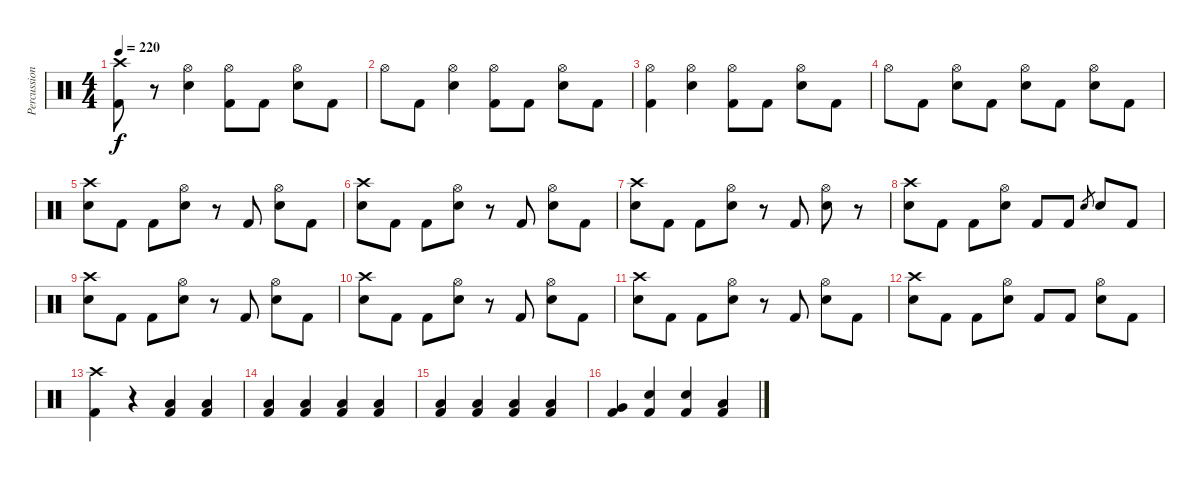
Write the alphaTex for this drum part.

\track ("Percussion" "Percussion") {instrument percussion}
\staff {score}
\articulation defaults
\ts (4 4)
\tempo 220
\clef neutral
\ks c
("Crash high (hit)" "Kick (hit) 2").8{dy f} r.8 ("Hi-Hat (open)" "Electric Snare (hit)").4 ("Hi-Hat (open)" "Kick (hit) 2").8 "Kick (hit) 2".8 ("Hi-Hat (open)" "Electric Snare (hit)").8 "Kick (hit) 2".8 |
"Hi-Hat (open)".8 "Kick (hit) 2".8 ("Hi-Hat (open)" "Electric Snare (hit)").4 ("Hi-Hat (open)" "Kick (hit) 2").8 "Kick (hit) 2".8 ("Hi-Hat (open)" "Electric Snare (hit)").8 "Kick (hit) 2".8 |
("Hi-Hat (open)" "Kick (hit) 2").4 ("Hi-Hat (open)" "Electric Snare (hit)").4 ("Hi-Hat (open)" "Kick (hit) 2").8 "Kick (hit) 2".8 ("Hi-Hat (open)" "Electric Snare (hit)").8 "Kick (hit) 2".8 |
"Hi-Hat (open)".8 "Kick (hit) 2".8 ("Hi-Hat (open)" "Electric Snare (hit)").8 "Kick (hit) 2".8 ("Hi-Hat (open)" "Electric Snare (hit)").8 "Kick (hit) 2".8 ("Hi-Hat (open)" "Electric Snare (hit)").8 "Kick (hit) 2".8 |
("Crash high (hit)" "Electric Snare (hit)").8 "Kick (hit) 2".8 "Kick (hit) 2".8 ("Hi-Hat (open)" "Electric Snare (hit)").8 r.8 "Kick (hit) 2".8 ("Hi-Hat (open)" "Electric Snare (hit)").8 "Kick (hit) 2".8 |
("Crash high (hit)" "Electric Snare (hit)").8 "Kick (hit) 2".8 "Kick (hit) 2".8 ("Hi-Hat (open)" "Electric Snare (hit)").8 r.8 "Kick (hit) 2".8 ("Hi-Hat (open)" "Electric Snare (hit)").8 "Kick (hit) 2".8 |
("Crash high (hit)" "Electric Snare (hit)").8 "Kick (hit) 2".8 "Kick (hit) 2".8 ("Hi-Hat (open)" "Electric Snare (hit)").8 r.8 "Kick (hit) 2".8 ("Hi-Hat (open)" "Electric Snare (hit)").8 r.8 |
("Crash high (hit)" "Electric Snare (hit)").8 "Kick (hit) 2".8 "Kick (hit) 2".8 ("Hi-Hat (open)" "Electric Snare (hit)").8 "Kick (hit) 2".8 "Kick (hit) 2".8 "Electric Snare (hit)".8{gr} "Electric Snare (hit)".8 "Kick (hit) 2".8 |
("Crash high (hit)" "Electric Snare (hit)").8 "Kick (hit) 2".8 "Kick (hit) 2".8 ("Hi-Hat (open)" "Electric Snare (hit)").8 r.8 "Kick (hit) 2".8 ("Hi-Hat (open)" "Electric Snare (hit)").8 "Kick (hit) 2".8 |
("Crash high (hit)" "Electric Snare (hit)").8 "Kick (hit) 2".8 "Kick (hit) 2".8 ("Hi-Hat (open)" "Electric Snare (hit)").8 r.8 "Kick (hit) 2".8 ("Hi-Hat (open)" "Electric Snare (hit)").8 "Kick (hit) 2".8 |
("Crash high (hit)" "Electric Snare (hit)").8 "Kick (hit) 2".8 "Kick (hit) 2".8 ("Hi-Hat (open)" "Electric Snare (hit)").8 r.8 "Kick (hit) 2".8 ("Hi-Hat (open)" "Electric Snare (hit)").8 "Kick (hit) 2".8 |
("Crash high (hit)" "Electric Snare (hit)").8 "Kick (hit) 2".8 "Kick (hit) 2".8 ("Hi-Hat (open)" "Electric Snare (hit)").8 "Kick (hit) 2".8 "Kick (hit) 2".8 ("Hi-Hat (open)" "Electric Snare (hit)").8 "Kick (hit) 2".8 |
("Crash high (hit)" "Kick (hit) 2").4 r.4 ("Low Floor Tom (hit)" "Kick (hit) 2").4 ("Low Floor Tom (hit)" "Kick (hit) 2").4 |
("Low Floor Tom (hit)" "Kick (hit) 2").4 ("Low Floor Tom (hit)" "Kick (hit) 2").4 ("Low Floor Tom (hit)" "Kick (hit) 2").4 ("Low Floor Tom (hit)" "Kick (hit) 2").4 |
("Low Floor Tom (hit)" "Kick (hit) 2").4 ("Low Floor Tom (hit)" "Kick (hit) 2").4 ("Low Floor Tom (hit)" "Kick (hit) 2").4 ("Low Floor Tom (hit)" "Kick (hit) 2").4 |
("Very Low Tom (hit)" "Kick (hit) 2").4 ("Electric Snare (hit)" "Kick (hit) 2").4 ("Electric Snare (hit)" "Kick (hit) 2").4 ("Low Tom (hit)" "Kick (hit) 2").4
